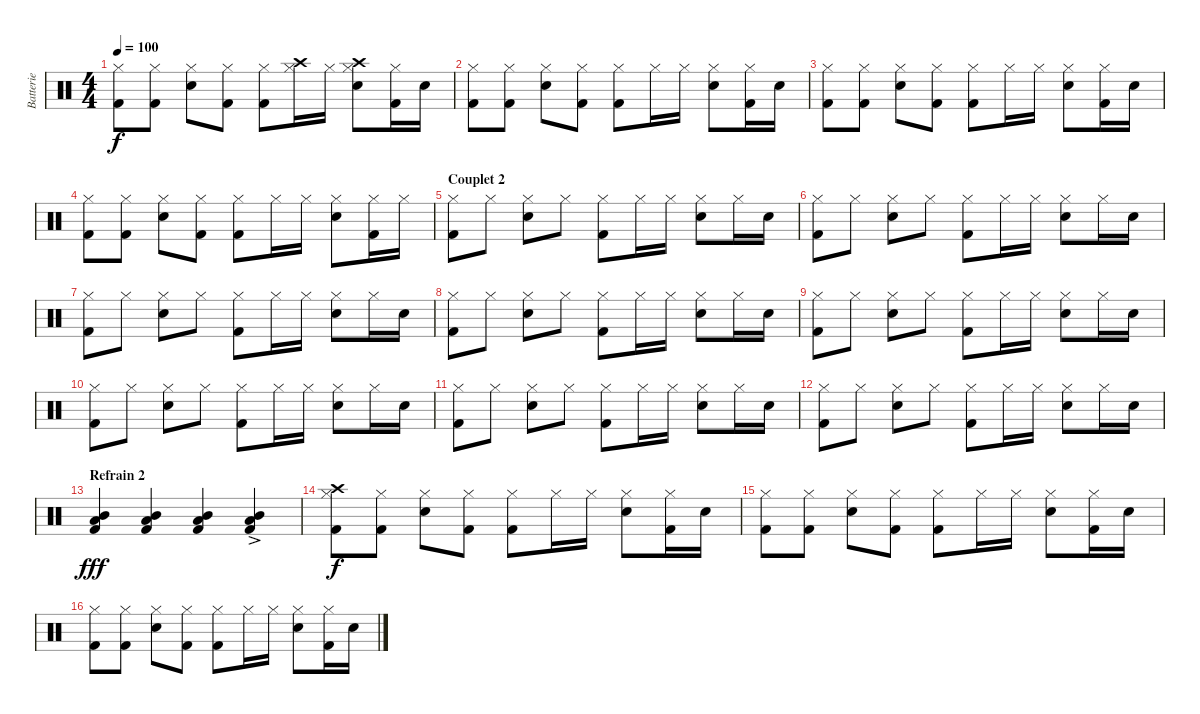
\track ("Batterie" "Batterie") {instrument percussion}
\staff {score}
\articulation defaults
\ts (4 4)
\tempo 100
\clef neutral
\ks c
("Kick (hit) 2" "Hi-Hat (closed)").8{dy f} ("Kick (hit) 2" "Hi-Hat (closed)").8 ("Snare (hit) 2" "Hi-Hat (closed)").8 ("Kick (hit) 2" "Hi-Hat (closed)").8 ("Kick (hit) 2" "Hi-Hat (closed)").8 ("Crash high (hit)" "Hi-Hat (closed)").16 "Hi-Hat (closed)".16 ("Snare (hit) 2" "Crash high (hit)" "Hi-Hat (closed)").8 ("Kick (hit) 2" "Hi-Hat (closed)").16 "Snare (hit) 2".16 |
("Kick (hit) 2" "Hi-Hat (closed)").8 ("Kick (hit) 2" "Hi-Hat (closed)").8 ("Snare (hit) 2" "Hi-Hat (closed)").8 ("Kick (hit) 2" "Hi-Hat (closed)").8 ("Kick (hit) 2" "Hi-Hat (closed)").8 "Hi-Hat (closed)".16 "Hi-Hat (closed)".16 ("Snare (hit) 2" "Hi-Hat (closed)").8 ("Kick (hit) 2" "Hi-Hat (closed)").16 "Snare (hit) 2".16 |
("Kick (hit) 2" "Hi-Hat (closed)").8 ("Kick (hit) 2" "Hi-Hat (closed)").8 ("Snare (hit) 2" "Hi-Hat (closed)").8 ("Kick (hit) 2" "Hi-Hat (closed)").8 ("Kick (hit) 2" "Hi-Hat (closed)").8 "Hi-Hat (closed)".16 "Hi-Hat (closed)".16 ("Snare (hit) 2" "Hi-Hat (closed)").8 ("Kick (hit) 2" "Hi-Hat (closed)").16 "Snare (hit) 2".16 |
("Kick (hit) 2" "Hi-Hat (closed)").8 ("Kick (hit) 2" "Hi-Hat (closed)").8 ("Snare (hit) 2" "Hi-Hat (closed)").8 ("Kick (hit) 2" "Hi-Hat (closed)").8 ("Kick (hit) 2" "Hi-Hat (closed)").8 "Hi-Hat (closed)".16 "Hi-Hat (closed)".16 ("Snare (hit) 2" "Hi-Hat (closed)").8 ("Kick (hit) 2" "Hi-Hat (closed)").16 "Hi-Hat (closed)".16 |
\section ("" "Couplet 2")
("Kick (hit) 2" "Hi-Hat (closed)").8 "Hi-Hat (closed)".8 ("Electric Snare (hit)" "Hi-Hat (closed)").8 "Hi-Hat (closed)".8 ("Kick (hit) 2" "Hi-Hat (closed)").8 "Hi-Hat (closed)".16 "Hi-Hat (closed)".16 ("Electric Snare (hit)" "Hi-Hat (closed)").8 "Hi-Hat (closed)".16 "Electric Snare (hit)".16 |
("Kick (hit) 2" "Hi-Hat (closed)").8 "Hi-Hat (closed)".8 ("Electric Snare (hit)" "Hi-Hat (closed)").8 "Hi-Hat (closed)".8 ("Kick (hit) 2" "Hi-Hat (closed)").8 "Hi-Hat (closed)".16 "Hi-Hat (closed)".16 ("Electric Snare (hit)" "Hi-Hat (closed)").8 "Hi-Hat (closed)".16 "Electric Snare (hit)".16 |
("Kick (hit) 2" "Hi-Hat (closed)").8 "Hi-Hat (closed)".8 ("Electric Snare (hit)" "Hi-Hat (closed)").8 "Hi-Hat (closed)".8 ("Kick (hit) 2" "Hi-Hat (closed)").8 "Hi-Hat (closed)".16 "Hi-Hat (closed)".16 ("Electric Snare (hit)" "Hi-Hat (closed)").8 "Hi-Hat (closed)".16 "Electric Snare (hit)".16 |
("Kick (hit) 2" "Hi-Hat (closed)").8 "Hi-Hat (closed)".8 ("Electric Snare (hit)" "Hi-Hat (closed)").8 "Hi-Hat (closed)".8 ("Kick (hit) 2" "Hi-Hat (closed)").8 "Hi-Hat (closed)".16 "Hi-Hat (closed)".16 ("Electric Snare (hit)" "Hi-Hat (closed)").8 "Hi-Hat (closed)".16 "Electric Snare (hit)".16 |
("Kick (hit) 2" "Hi-Hat (closed)").8 "Hi-Hat (closed)".8 ("Electric Snare (hit)" "Hi-Hat (closed)").8 "Hi-Hat (closed)".8 ("Kick (hit) 2" "Hi-Hat (closed)").8 "Hi-Hat (closed)".16 "Hi-Hat (closed)".16 ("Electric Snare (hit)" "Hi-Hat (closed)").8 "Hi-Hat (closed)".16 "Electric Snare (hit)".16 |
("Kick (hit) 2" "Hi-Hat (closed)").8 "Hi-Hat (closed)".8 ("Electric Snare (hit)" "Hi-Hat (closed)").8 "Hi-Hat (closed)".8 ("Kick (hit) 2" "Hi-Hat (closed)").8 "Hi-Hat (closed)".16 "Hi-Hat (closed)".16 ("Electric Snare (hit)" "Hi-Hat (closed)").8 "Hi-Hat (closed)".16 "Electric Snare (hit)".16 |
("Kick (hit) 2" "Hi-Hat (closed)").8 "Hi-Hat (closed)".8 ("Electric Snare (hit)" "Hi-Hat (closed)").8 "Hi-Hat (closed)".8 ("Kick (hit) 2" "Hi-Hat (closed)").8 "Hi-Hat (closed)".16 "Hi-Hat (closed)".16 ("Electric Snare (hit)" "Hi-Hat (closed)").8 "Hi-Hat (closed)".16 "Electric Snare (hit)".16 |
("Kick (hit) 2" "Hi-Hat (closed)").8 "Hi-Hat (closed)".8 ("Electric Snare (hit)" "Hi-Hat (closed)").8 "Hi-Hat (closed)".8 ("Kick (hit) 2" "Hi-Hat (closed)").8 "Hi-Hat (closed)".16 "Hi-Hat (closed)".16 ("Electric Snare (hit)" "Hi-Hat (closed)").8 "Hi-Hat (closed)".16 "Electric Snare (hit)".16 |
\section ("" "Refrain 2")
("Kick (hit) 2" "Mid Tom (hit)" "Low Floor Tom (hit)").4{dy fff} ("Kick (hit) 2" "Mid Tom (hit)" "Low Floor Tom (hit)").4 ("Kick (hit) 2" "Mid Tom (hit)" "Low Floor Tom (hit)").4 ("Kick (hit) 2"{ac} "Mid Tom (hit)" "Low Floor Tom (hit)").4 |
("Kick (hit) 2" "Crash high (hit)" "Hi-Hat (closed)").8{dy f} ("Kick (hit) 2" "Hi-Hat (closed)").8 ("Snare (hit) 2" "Hi-Hat (closed)").8 ("Kick (hit) 2" "Hi-Hat (closed)").8 ("Kick (hit) 2" "Hi-Hat (closed)").8 "Hi-Hat (closed)".16 "Hi-Hat (closed)".16 ("Snare (hit) 2" "Hi-Hat (closed)").8 ("Kick (hit) 2" "Hi-Hat (closed)").16 "Snare (hit) 2".16 |
("Kick (hit) 2" "Hi-Hat (closed)").8 ("Kick (hit) 2" "Hi-Hat (closed)").8 ("Snare (hit) 2" "Hi-Hat (closed)").8 ("Kick (hit) 2" "Hi-Hat (closed)").8 ("Kick (hit) 2" "Hi-Hat (closed)").8 "Hi-Hat (closed)".16 "Hi-Hat (closed)".16 ("Snare (hit) 2" "Hi-Hat (closed)").8 ("Kick (hit) 2" "Hi-Hat (closed)").16 "Snare (hit) 2".16 |
("Kick (hit) 2" "Hi-Hat (closed)").8 ("Kick (hit) 2" "Hi-Hat (closed)").8 ("Snare (hit) 2" "Hi-Hat (closed)").8 ("Kick (hit) 2" "Hi-Hat (closed)").8 ("Kick (hit) 2" "Hi-Hat (closed)").8 "Hi-Hat (closed)".16 "Hi-Hat (closed)".16 ("Snare (hit) 2" "Hi-Hat (closed)").8 ("Kick (hit) 2" "Hi-Hat (closed)").16 "Snare (hit) 2".16
